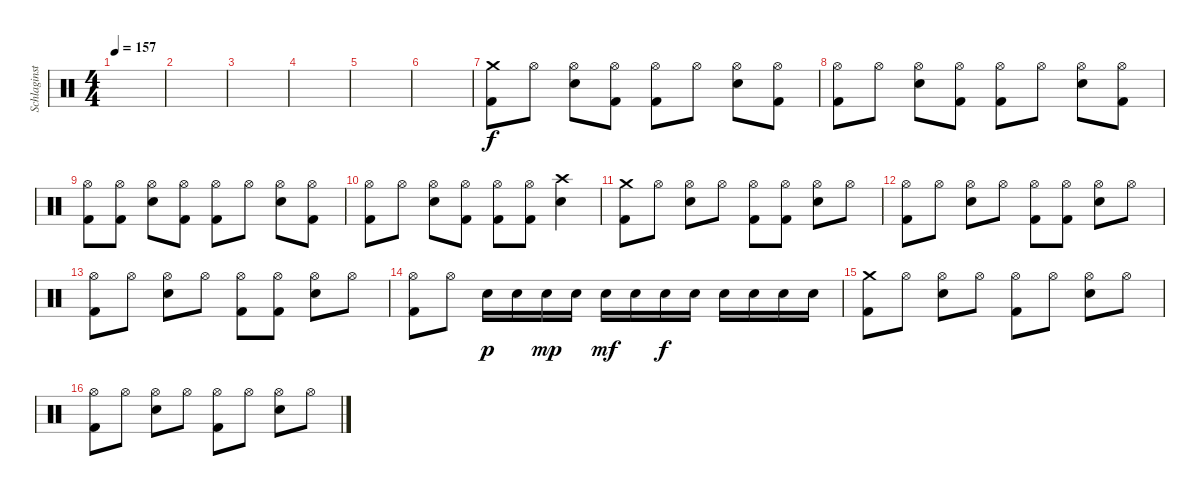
\track ("Schlaginstrumente - Auswahl" "Schlaginst") {instrument percussion}
\staff {score}
\articulation defaults
\ts (4 4)
\tempo 157
\clef neutral
\ks c
|
|
|
|
|
|
("Crash medium (hit)" "Kick (hit) 2").8 "Hi-Hat (open)".8 ("Hi-Hat (open)" "Electric Snare (hit)").8 ("Hi-Hat (open)" "Kick (hit) 2").8 ("Hi-Hat (open)" "Kick (hit) 2").8 "Hi-Hat (open)".8 ("Hi-Hat (open)" "Electric Snare (hit)").8 ("Hi-Hat (open)" "Kick (hit) 2").8 |
("Hi-Hat (open)" "Kick (hit) 2").8 "Hi-Hat (open)".8 ("Hi-Hat (open)" "Electric Snare (hit)").8 ("Hi-Hat (open)" "Kick (hit) 2").8 ("Hi-Hat (open)" "Kick (hit) 2").8 "Hi-Hat (open)".8 ("Hi-Hat (open)" "Electric Snare (hit)").8 ("Hi-Hat (open)" "Kick (hit) 2").8 |
("Hi-Hat (open)" "Kick (hit) 2").8 ("Hi-Hat (open)" "Kick (hit) 2").8 ("Hi-Hat (open)" "Electric Snare (hit)").8 ("Hi-Hat (open)" "Kick (hit) 2").8 ("Hi-Hat (open)" "Kick (hit) 2").8 "Hi-Hat (open)".8 ("Hi-Hat (open)" "Electric Snare (hit)").8 ("Hi-Hat (open)" "Kick (hit) 2").8 |
("Hi-Hat (open)" "Kick (hit) 2").8 "Hi-Hat (open)".8 ("Hi-Hat (open)" "Electric Snare (hit)").8 ("Hi-Hat (open)" "Kick (hit) 2").8 ("Hi-Hat (open)" "Kick (hit) 2").8 ("Hi-Hat (open)" "Kick (hit) 2").8 ("Crash high (hit)" "Electric Snare (hit)").4 |
("Crash medium (hit)" "Kick (hit) 2").8 "Hi-Hat (open)".8 ("Hi-Hat (open)" "Electric Snare (hit)").8 "Hi-Hat (open)".8 ("Hi-Hat (open)" "Kick (hit) 2").8 ("Hi-Hat (open)" "Kick (hit) 2").8 ("Hi-Hat (open)" "Electric Snare (hit)").8 "Hi-Hat (open)".8 |
("Hi-Hat (open)" "Kick (hit) 2").8 "Hi-Hat (open)".8 ("Hi-Hat (open)" "Electric Snare (hit)").8 "Hi-Hat (open)".8 ("Hi-Hat (open)" "Kick (hit) 2").8 ("Hi-Hat (open)" "Kick (hit) 2").8 ("Hi-Hat (open)" "Electric Snare (hit)").8 "Hi-Hat (open)".8 |
("Hi-Hat (open)" "Kick (hit) 2").8 "Hi-Hat (open)".8 ("Hi-Hat (open)" "Electric Snare (hit)").8 "Hi-Hat (open)".8 ("Hi-Hat (open)" "Kick (hit) 2").8 ("Hi-Hat (open)" "Kick (hit) 2").8 ("Hi-Hat (open)" "Electric Snare (hit)").8 "Hi-Hat (open)".8 |
("Hi-Hat (open)" "Kick (hit) 2").8 "Hi-Hat (open)".8 "Electric Snare (hit)".16{dy p} "Electric Snare (hit)".16 "Electric Snare (hit)".16{dy mp} "Electric Snare (hit)".16 "Electric Snare (hit)".16{dy mf} "Electric Snare (hit)".16 "Electric Snare (hit)".16{dy f} "Electric Snare (hit)".16 "Electric Snare (hit)".16 "Electric Snare (hit)".16 "Electric Snare (hit)".16 "Electric Snare (hit)".16 |
("Crash medium (hit)" "Kick (hit) 2").8 "Hi-Hat (open)".8 ("Hi-Hat (open)" "Electric Snare (hit)").8 "Hi-Hat (open)".8 ("Hi-Hat (open)" "Kick (hit) 2").8 "Hi-Hat (open)".8 ("Hi-Hat (open)" "Electric Snare (hit)").8 "Hi-Hat (open)".8 |
("Hi-Hat (open)" "Kick (hit) 2").8 "Hi-Hat (open)".8 ("Hi-Hat (open)" "Electric Snare (hit)").8 "Hi-Hat (open)".8 ("Hi-Hat (open)" "Kick (hit) 2").8 "Hi-Hat (open)".8 ("Hi-Hat (open)" "Electric Snare (hit)").8 "Hi-Hat (open)".8
